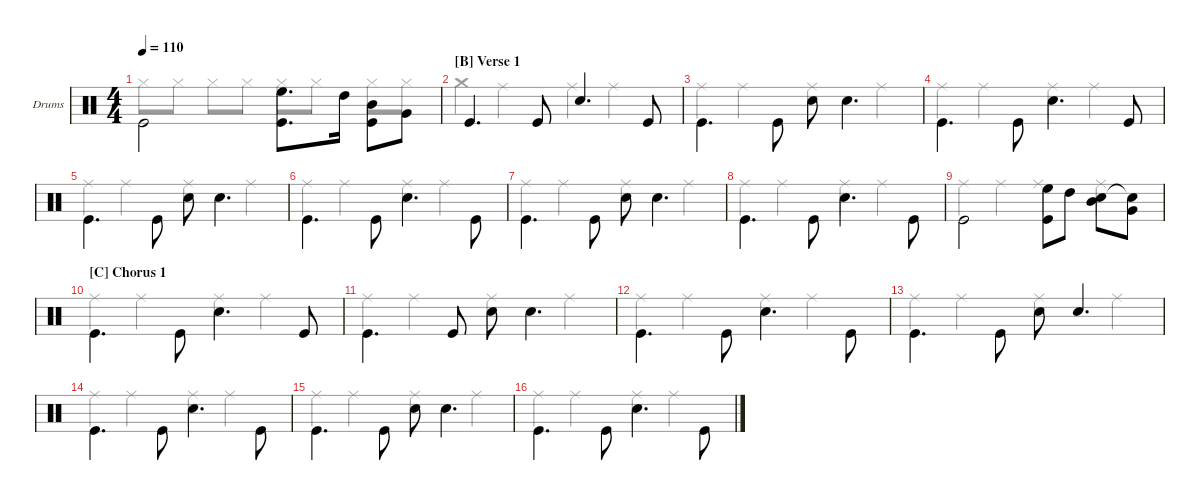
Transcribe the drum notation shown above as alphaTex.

\hideDynamics
\bracketExtendMode groupsimilarinstruments
\multiBarRest
\firstSystemTrackNameOrientation horizontal
\otherSystemsTrackNameOrientation horizontal
\track ("Drumkit" "Drums") {multiBarRest instrument percussion}
\staff {score}
\articulation defaults
\voice
\ts (4 4)
\tempo 110
\clef neutral
\ks c "Kick (hit)".2{dy f beam invert}
("Kick (hit)" "High Floor Tom (hit)").8{d beam invert} "High Tom (hit)".16 ("Kick (hit)" "Mid Tom (hit)").8{beam invert} "Very Low Tom (hit)".8 |
\section ("B" "Verse 1")
"Kick (hit)".4{d} "Kick (hit)".8 "Snare (hit) 2".4{d} "Kick (hit)".8 |
"Kick (hit)".4{d beam invert} "Kick (hit)".8{beam invert} "Snare (hit) 2".8{beam invert} "Snare (hit) 2".4{d beam invert} |
"Kick (hit)".4{d beam invert} "Kick (hit)".8 "Snare (hit) 2".4{d beam invert} "Kick (hit)".8 |
"Kick (hit)".4{d beam invert} "Kick (hit)".8{beam invert} "Snare (hit) 2".8{beam invert} "Snare (hit) 2".4{d beam invert} |
"Kick (hit)".4{d beam invert} "Kick (hit)".8{beam invert} "Snare (hit) 2".4{d beam invert} "Kick (hit)".8{beam invert} |
"Kick (hit)".4{d beam invert} "Kick (hit)".8{beam invert} "Snare (hit) 2".8{beam invert} "Snare (hit) 2".4{d beam invert} |
"Kick (hit)".4{d beam invert} "Kick (hit)".8{beam invert} "Snare (hit) 2".4{d beam invert} "Kick (hit)".8{beam invert} |
"Kick (hit)".2{beam invert} ("High Floor Tom (hit)" "Kick (hit)").8{beam invert} "High Tom (hit)".8 ("Mid Tom (hit)" "Snare (hit) 2").8{beam invert} ("Very Low Tom (hit)" "Snare (hit) 2"{t}).8 |
\section ("C" "Chorus 1")
"Kick (hit)".4{d beam invert} "Kick (hit)".8 "Snare (hit) 2".4{d beam invert} "Kick (hit)".8 |
"Kick (hit)".4{d beam invert} "Kick (hit)".8 "Snare (hit) 2".8 "Snare (hit) 2".4{d beam invert} |
"Kick (hit)".4{d} "Kick (hit)".8{beam invert} "Snare (hit) 2".4{d} "Kick (hit)".8{beam invert} |
"Kick (hit)".4{d beam invert} "Kick (hit)".8 "Snare (hit) 2".8{beam invert} "Snare (hit) 2".4{d} |
"Kick (hit)".4{d beam invert} "Kick (hit)".8 "Snare (hit) 2".4{d beam invert} "Kick (hit)".8{beam invert} |
"Kick (hit)".4{d beam invert} "Kick (hit)".8{beam invert} "Snare (hit) 2".8{beam invert} "Snare (hit) 2".4{d beam invert} |
"Kick (hit)".4{d beam invert} "Kick (hit)".8{beam invert} "Snare (hit) 2".4{d beam invert} "Kick (hit)".8{beam invert}
\voice
\clef neutral
\ottava regular
\simile none
\ks c
|
|
|
|
|
|
|
|
|
|
|
|
|
|
|
\voice
\clef neutral
\ottava regular
\simile none
\ks c
|
|
|
|
|
|
|
|
|
|
|
|
|
|
|
\voice
\clef neutral
\ottava regular
\simile none
\ks c "Hi-Hat (closed)".8{dy f} "Hi-Hat (closed)".8 "Hi-Hat (closed)".8 "Hi-Hat (closed)".8 "Hi-Hat (closed)".8 "Hi-Hat (closed)".8 "Hi-Hat (closed)".8 "Hi-Hat (closed)".8
|
"Crash medium (hit)".4 "Ride (middle)".4 "Ride (middle)".4 "Ride (middle)".4 |
"Ride (middle)".4 "Ride (middle)".4 "Ride (middle)".4 "Ride (middle)".4 |
"Ride (middle)".4 "Ride (middle)".4 "Ride (middle)".4 "Ride (middle)".4 |
"Ride (middle)".4 "Ride (middle)".4 "Ride (middle)".4 "Ride (middle)".4 |
"Ride (middle)".4 "Ride (middle)".4 "Ride (middle)".4 "Ride (middle)".4 |
"Ride (middle)".4 "Ride (middle)".4 "Ride (middle)".4 "Ride (middle)".4 |
"Ride (middle)".4 "Ride (middle)".4 "Ride (middle)".4 "Ride (middle)".4 |
"Ride (middle)".4 "Ride (middle)".4 "Ride (middle)".4 "Ride (middle)".4 |
"Ride (middle)".4 "Ride (middle)".4 "Ride (middle)".4 "Ride (middle)".4 |
"Ride (middle)".4 "Ride (middle)".4 "Ride (middle)".4 "Ride (middle)".4 |
"Ride (middle)".4 "Ride (middle)".4 "Ride (middle)".4 "Ride (middle)".4 |
"Ride (middle)".4 "Ride (middle)".4 "Ride (middle)".4 "Ride (middle)".4 |
"Ride (middle)".4 "Ride (middle)".4 "Ride (middle)".4 "Ride (middle)".4 |
"Ride (middle)".4 "Ride (middle)".4 "Ride (middle)".4 "Ride (middle)".4 |
"Ride (middle)".4 "Ride (middle)".4 "Ride (middle)".4 "Ride (middle)".4
